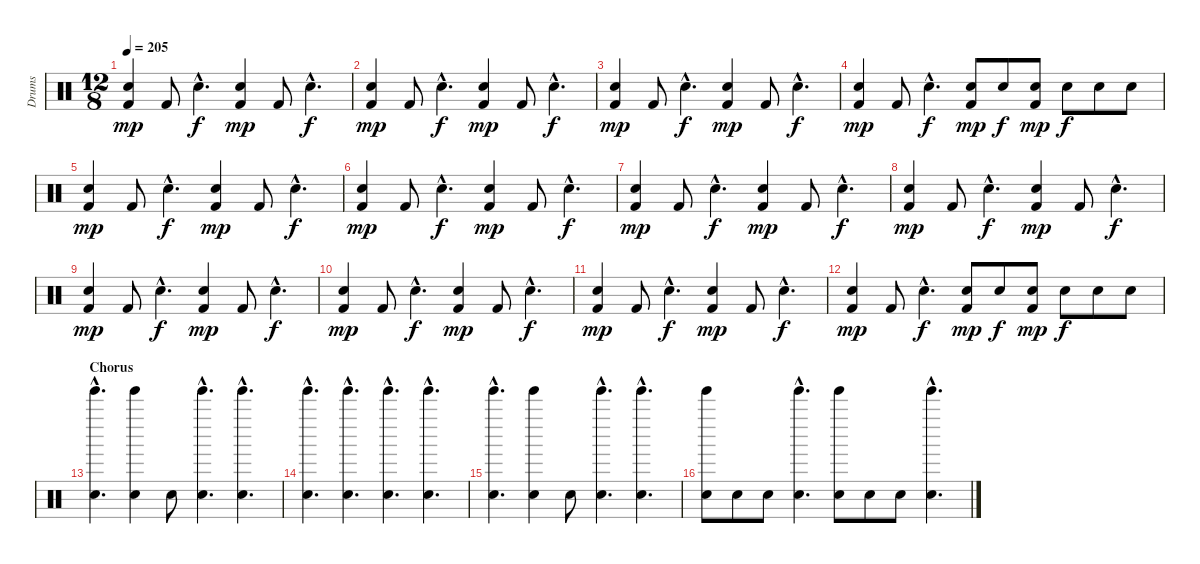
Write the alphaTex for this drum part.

\track ("Drums" "Drums") {instrument percussion}
\staff {score}
\articulation defaults
\ts (12 8)
\tempo 205
\clef neutral
\ks c
("Snare (hit) 2" "Kick (hit) 2").4{dy mp volume 10} "Kick (hit) 2".8 "Snare (hit) 2"{hac}.4{d dy f} ("Snare (hit) 2" "Kick (hit) 2").4{dy mp} "Kick (hit) 2".8 "Snare (hit) 2"{hac}.4{d dy f} |
("Snare (hit) 2" "Kick (hit) 2").4{dy mp} "Kick (hit) 2".8 "Snare (hit) 2"{hac}.4{d dy f} ("Snare (hit) 2" "Kick (hit) 2").4{dy mp} "Kick (hit) 2".8 "Snare (hit) 2"{hac}.4{d dy f} |
("Snare (hit) 2" "Kick (hit) 2").4{dy mp volume 10} "Kick (hit) 2".8 "Snare (hit) 2"{hac}.4{d dy f} ("Snare (hit) 2" "Kick (hit) 2").4{dy mp} "Kick (hit) 2".8 "Snare (hit) 2"{hac}.4{d dy f} |
("Snare (hit) 2" "Kick (hit) 2").4{dy mp} "Kick (hit) 2".8 "Snare (hit) 2"{hac}.4{d dy f} ("Snare (hit) 2" "Kick (hit) 2").8{dy mp} "Snare (hit) 2".8{dy f} ("Snare (hit) 2" "Kick (hit) 2").8{dy mp} "Snare (hit) 2".8{dy f} "Snare (hit) 2".8 "Snare (hit) 2".8 |
("Snare (hit) 2" "Kick (hit) 2").4{dy mp volume 10} "Kick (hit) 2".8 "Snare (hit) 2"{hac}.4{d dy f} ("Snare (hit) 2" "Kick (hit) 2").4{dy mp} "Kick (hit) 2".8 "Snare (hit) 2"{hac}.4{d dy f} |
("Snare (hit) 2" "Kick (hit) 2").4{dy mp} "Kick (hit) 2".8 "Snare (hit) 2"{hac}.4{d dy f} ("Snare (hit) 2" "Kick (hit) 2").4{dy mp} "Kick (hit) 2".8 "Snare (hit) 2"{hac}.4{d dy f} |
("Snare (hit) 2" "Kick (hit) 2").4{dy mp volume 10} "Kick (hit) 2".8 "Snare (hit) 2"{hac}.4{d dy f} ("Snare (hit) 2" "Kick (hit) 2").4{dy mp} "Kick (hit) 2".8 "Snare (hit) 2"{hac}.4{d dy f} |
("Snare (hit) 2" "Kick (hit) 2").4{dy mp} "Kick (hit) 2".8 "Snare (hit) 2"{hac}.4{d dy f} ("Snare (hit) 2" "Kick (hit) 2").4{dy mp} "Kick (hit) 2".8 "Snare (hit) 2"{hac}.4{d dy f} |
("Snare (hit) 2" "Kick (hit) 2").4{dy mp volume 10} "Kick (hit) 2".8 "Snare (hit) 2"{hac}.4{d dy f} ("Snare (hit) 2" "Kick (hit) 2").4{dy mp} "Kick (hit) 2".8 "Snare (hit) 2"{hac}.4{d dy f} |
("Snare (hit) 2" "Kick (hit) 2").4{dy mp} "Kick (hit) 2".8 "Snare (hit) 2"{hac}.4{d dy f} ("Snare (hit) 2" "Kick (hit) 2").4{dy mp} "Kick (hit) 2".8 "Snare (hit) 2"{hac}.4{d dy f} |
("Snare (hit) 2" "Kick (hit) 2").4{dy mp volume 10} "Kick (hit) 2".8 "Snare (hit) 2"{hac}.4{d dy f} ("Snare (hit) 2" "Kick (hit) 2").4{dy mp} "Kick (hit) 2".8 "Snare (hit) 2"{hac}.4{d dy f} |
("Snare (hit) 2" "Kick (hit) 2").4{dy mp} "Kick (hit) 2".8 "Snare (hit) 2"{hac}.4{d dy f} ("Snare (hit) 2" "Kick (hit) 2").8{dy mp} "Snare (hit) 2".8{dy f} ("Snare (hit) 2" "Kick (hit) 2").8{dy mp} "Snare (hit) 2".8{dy f} "Snare (hit) 2".8 "Snare (hit) 2".8 |
\section ("" "Chorus")
("Tinkle Bell (hit)"{hac} "Snare (hit) 2"{hac}).4{d} ("Tinkle Bell (hit)" "Snare (hit) 2").4 "Snare (hit) 2".8 ("Tinkle Bell (hit)"{hac} "Snare (hit) 2"{hac}).4{d} ("Tinkle Bell (hit)"{hac} "Snare (hit) 2"{hac}).4{d} |
("Tinkle Bell (hit)"{hac} "Snare (hit) 2"{hac}).4{d} ("Tinkle Bell (hit)"{hac} "Snare (hit) 2"{hac}).4{d} ("Tinkle Bell (hit)"{hac} "Snare (hit) 2"{hac}).4{d} ("Tinkle Bell (hit)"{hac} "Snare (hit) 2"{hac}).4{d} |
("Tinkle Bell (hit)"{hac} "Snare (hit) 2"{hac}).4{d} ("Tinkle Bell (hit)" "Snare (hit) 2").4 "Snare (hit) 2".8 ("Tinkle Bell (hit)"{hac} "Snare (hit) 2"{hac}).4{d} ("Tinkle Bell (hit)"{hac} "Snare (hit) 2"{hac}).4{d} |
("Tinkle Bell (hit)" "Snare (hit) 2").8 "Snare (hit) 2".8 "Snare (hit) 2".8 ("Tinkle Bell (hit)"{hac} "Snare (hit) 2"{hac}).4{d} ("Tinkle Bell (hit)" "Snare (hit) 2").8 "Snare (hit) 2".8 "Snare (hit) 2".8 ("Tinkle Bell (hit)"{hac} "Snare (hit) 2"{hac}).4{d}
